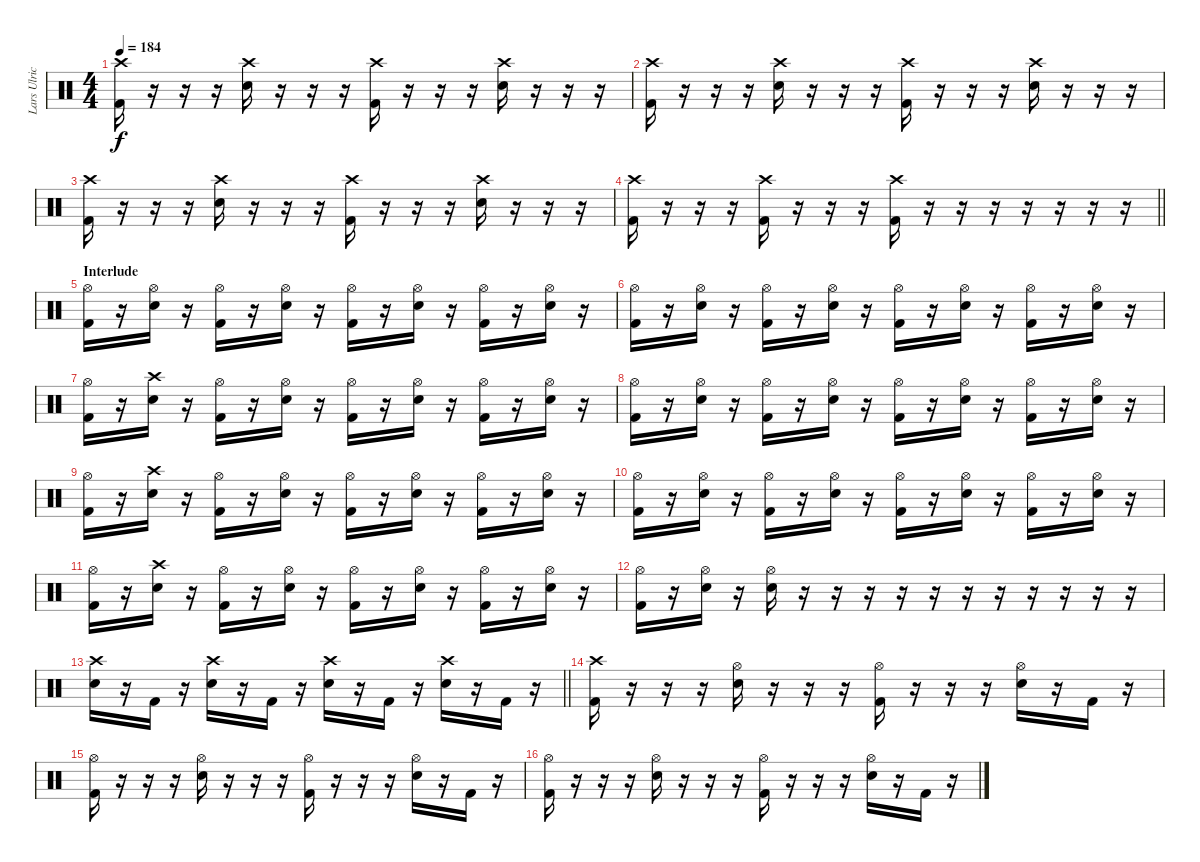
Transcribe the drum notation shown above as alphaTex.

\track ("Lars Ulrich" "Lars Ulric") {instrument percussion}
\staff {score}
\articulation defaults
\ts (4 4)
\tempo 184
\clef neutral
\ks c
("Crash high (hit)" "Kick (hit) 2").16{dy f} r.16 r.16 r.16 ("Crash high (hit)" "Electric Snare (hit)").16 r.16 r.16 r.16 ("Crash high (hit)" "Kick (hit) 2").16 r.16 r.16 r.16 ("Crash high (hit)" "Electric Snare (hit)").16 r.16 r.16 r.16 |
("Crash high (hit)" "Kick (hit) 2").16 r.16 r.16 r.16 ("Crash high (hit)" "Electric Snare (hit)").16 r.16 r.16 r.16 ("Crash high (hit)" "Kick (hit) 2").16 r.16 r.16 r.16 ("Crash high (hit)" "Electric Snare (hit)").16 r.16 r.16 r.16 |
("Crash high (hit)" "Kick (hit) 2").16 r.16 r.16 r.16 ("Crash high (hit)" "Electric Snare (hit)").16 r.16 r.16 r.16 ("Crash high (hit)" "Kick (hit) 2").16 r.16 r.16 r.16 ("Crash high (hit)" "Electric Snare (hit)").16 r.16 r.16 r.16 |
\barLineRight lightlight
("Crash high (hit)" "Kick (hit) 2").16 r.16 r.16 r.16{volume 0} ("Crash high (hit)" "Kick (hit) 2").16{volume 10} r.16 r.16 r.16{volume 0} ("Crash high (hit)" "Kick (hit) 2").16{volume 10} r.16 r.16 r.16{volume 0} r.16 r.16 r.16 r.16 |
\section ("" "Interlude")
("Hi-Hat (open)" "Kick (hit) 2").16{volume 10} r.16 ("Electric Snare (hit)" "Hi-Hat (open)").16 r.16 ("Hi-Hat (open)" "Kick (hit) 2").16 r.16 ("Electric Snare (hit)" "Hi-Hat (open)").16 r.16 ("Hi-Hat (open)" "Kick (hit) 2").16 r.16 ("Electric Snare (hit)" "Hi-Hat (open)").16 r.16 ("Hi-Hat (open)" "Kick (hit) 2").16 r.16 ("Electric Snare (hit)" "Hi-Hat (open)").16 r.16 |
("Hi-Hat (open)" "Kick (hit) 2").16 r.16 ("Electric Snare (hit)" "Hi-Hat (open)").16 r.16 ("Hi-Hat (open)" "Kick (hit) 2").16 r.16 ("Electric Snare (hit)" "Hi-Hat (open)").16 r.16 ("Hi-Hat (open)" "Kick (hit) 2").16 r.16 ("Electric Snare (hit)" "Hi-Hat (open)").16 r.16 ("Hi-Hat (open)" "Kick (hit) 2").16 r.16 ("Electric Snare (hit)" "Hi-Hat (open)").16 r.16 |
("Hi-Hat (open)" "Kick (hit) 2").16 r.16 ("Crash high (hit)" "Electric Snare (hit)").16 r.16 ("Hi-Hat (open)" "Kick (hit) 2").16 r.16 ("Electric Snare (hit)" "Hi-Hat (open)").16 r.16 ("Hi-Hat (open)" "Kick (hit) 2").16 r.16 ("Electric Snare (hit)" "Hi-Hat (open)").16 r.16 ("Hi-Hat (open)" "Kick (hit) 2").16 r.16 ("Electric Snare (hit)" "Hi-Hat (open)").16 r.16 |
("Hi-Hat (open)" "Kick (hit) 2").16 r.16 ("Electric Snare (hit)" "Hi-Hat (open)").16 r.16 ("Hi-Hat (open)" "Kick (hit) 2").16 r.16 ("Electric Snare (hit)" "Hi-Hat (open)").16 r.16 ("Hi-Hat (open)" "Kick (hit) 2").16 r.16 ("Electric Snare (hit)" "Hi-Hat (open)").16 r.16 ("Hi-Hat (open)" "Kick (hit) 2").16 r.16 ("Electric Snare (hit)" "Hi-Hat (open)").16 r.16 |
("Hi-Hat (open)" "Kick (hit) 2").16 r.16 ("Crash high (hit)" "Electric Snare (hit)").16 r.16 ("Hi-Hat (open)" "Kick (hit) 2").16 r.16 ("Electric Snare (hit)" "Hi-Hat (open)").16 r.16 ("Hi-Hat (open)" "Kick (hit) 2").16 r.16 ("Electric Snare (hit)" "Hi-Hat (open)").16 r.16 ("Hi-Hat (open)" "Kick (hit) 2").16 r.16 ("Electric Snare (hit)" "Hi-Hat (open)").16 r.16 |
("Hi-Hat (open)" "Kick (hit) 2").16 r.16 ("Electric Snare (hit)" "Hi-Hat (open)").16 r.16 ("Hi-Hat (open)" "Kick (hit) 2").16 r.16 ("Electric Snare (hit)" "Hi-Hat (open)").16 r.16 ("Hi-Hat (open)" "Kick (hit) 2").16 r.16 ("Electric Snare (hit)" "Hi-Hat (open)").16 r.16 ("Hi-Hat (open)" "Kick (hit) 2").16 r.16 ("Electric Snare (hit)" "Hi-Hat (open)").16 r.16 |
("Hi-Hat (open)" "Kick (hit) 2").16 r.16 ("Crash high (hit)" "Electric Snare (hit)").16 r.16 ("Hi-Hat (open)" "Kick (hit) 2").16 r.16 ("Electric Snare (hit)" "Hi-Hat (open)").16 r.16 ("Hi-Hat (open)" "Kick (hit) 2").16 r.16 ("Electric Snare (hit)" "Hi-Hat (open)").16 r.16 ("Hi-Hat (open)" "Kick (hit) 2").16 r.16 ("Electric Snare (hit)" "Hi-Hat (open)").16 r.16 |
("Hi-Hat (open)" "Kick (hit) 2").16 r.16 ("Electric Snare (hit)" "Hi-Hat (open)").16 r.16 ("Electric Snare (hit)" "Hi-Hat (open)").16 r.16 r.16 r.16 r.16 r.16 r.16 r.16 r.16 r.16 r.16 r.16 |
\barLineRight lightlight
("Crash high (hit)" "Electric Snare (hit)").16 r.16 "Kick (hit) 2".16 r.16 ("Crash high (hit)" "Electric Snare (hit)").16 r.16 "Kick (hit) 2".16 r.16 ("Crash high (hit)" "Electric Snare (hit)").16 r.16 "Kick (hit) 2".16 r.16 ("Crash high (hit)" "Electric Snare (hit)").16 r.16 "Kick (hit) 2".16 r.16 |
\section ("" "")
("Crash high (hit)" "Kick (hit) 2").16 r.16 r.16 r.16 ("Electric Snare (hit)" "Hi-Hat (open)").16 r.16 r.16 r.16 ("Hi-Hat (open)" "Kick (hit) 2").16 r.16 r.16 r.16 ("Electric Snare (hit)" "Hi-Hat (open)").16 r.16 "Kick (hit) 2".16 r.16 |
("Hi-Hat (open)" "Kick (hit) 2").16 r.16 r.16 r.16 ("Electric Snare (hit)" "Hi-Hat (open)").16 r.16 r.16 r.16 ("Hi-Hat (open)" "Kick (hit) 2").16 r.16 r.16 r.16 ("Electric Snare (hit)" "Hi-Hat (open)").16 r.16 "Kick (hit) 2".16 r.16 |
("Hi-Hat (open)" "Kick (hit) 2").16 r.16 r.16 r.16 ("Electric Snare (hit)" "Hi-Hat (open)").16 r.16 r.16 r.16 ("Hi-Hat (open)" "Kick (hit) 2").16 r.16 r.16 r.16 ("Electric Snare (hit)" "Hi-Hat (open)").16 r.16 "Kick (hit) 2".16 r.16
